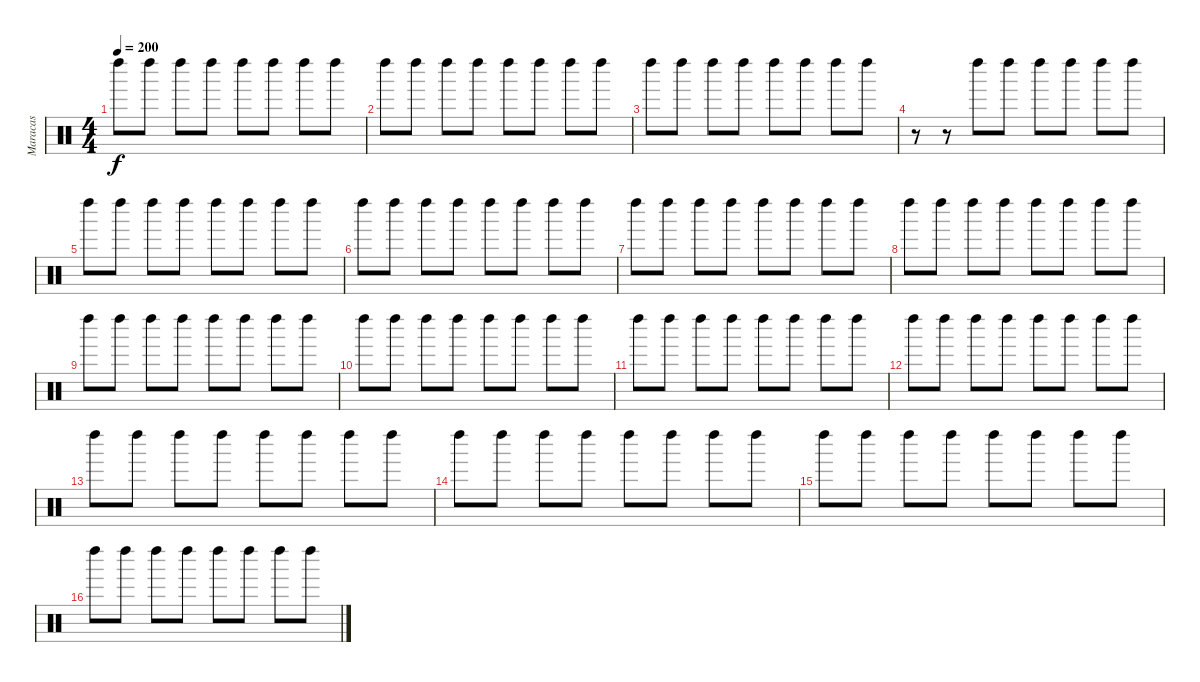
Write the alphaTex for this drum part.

\track ("Maracas" "Maracas") {instrument percussion}
\staff {score}
\articulation defaults
\ts (4 4)
\tempo 200
\clef neutral
\ks c "Left Maraca (hit)".8{dy f} "Left Maraca (hit)".8 "Left Maraca (hit)".8 "Left Maraca (hit)".8 "Left Maraca (hit)".8 "Left Maraca (hit)".8 "Left Maraca (hit)".8 "Left Maraca (hit)".8
|
"Left Maraca (hit)".8 "Left Maraca (hit)".8 "Left Maraca (hit)".8 "Left Maraca (hit)".8 "Left Maraca (hit)".8 "Left Maraca (hit)".8 "Left Maraca (hit)".8 "Left Maraca (hit)".8 |
"Left Maraca (hit)".8 "Left Maraca (hit)".8 "Left Maraca (hit)".8 "Left Maraca (hit)".8 "Left Maraca (hit)".8 "Left Maraca (hit)".8 "Left Maraca (hit)".8 "Left Maraca (hit)".8 |
r.8 r.8 "Left Maraca (hit)".8 "Left Maraca (hit)".8 "Left Maraca (hit)".8 "Left Maraca (hit)".8 "Left Maraca (hit)".8 "Left Maraca (hit)".8 |
"Left Maraca (hit)".8 "Left Maraca (hit)".8 "Left Maraca (hit)".8 "Left Maraca (hit)".8 "Left Maraca (hit)".8 "Left Maraca (hit)".8 "Left Maraca (hit)".8 "Left Maraca (hit)".8 |
"Left Maraca (hit)".8 "Left Maraca (hit)".8 "Left Maraca (hit)".8 "Left Maraca (hit)".8 "Left Maraca (hit)".8 "Left Maraca (hit)".8 "Left Maraca (hit)".8 "Left Maraca (hit)".8 |
"Left Maraca (hit)".8 "Left Maraca (hit)".8 "Left Maraca (hit)".8 "Left Maraca (hit)".8 "Left Maraca (hit)".8 "Left Maraca (hit)".8 "Left Maraca (hit)".8 "Left Maraca (hit)".8 |
"Left Maraca (hit)".8 "Left Maraca (hit)".8 "Left Maraca (hit)".8 "Left Maraca (hit)".8 "Left Maraca (hit)".8 "Left Maraca (hit)".8 "Left Maraca (hit)".8 "Left Maraca (hit)".8 |
"Left Maraca (hit)".8 "Left Maraca (hit)".8 "Left Maraca (hit)".8 "Left Maraca (hit)".8 "Left Maraca (hit)".8 "Left Maraca (hit)".8 "Left Maraca (hit)".8 "Left Maraca (hit)".8 |
"Left Maraca (hit)".8 "Left Maraca (hit)".8 "Left Maraca (hit)".8 "Left Maraca (hit)".8 "Left Maraca (hit)".8 "Left Maraca (hit)".8 "Left Maraca (hit)".8 "Left Maraca (hit)".8 |
"Left Maraca (hit)".8 "Left Maraca (hit)".8 "Left Maraca (hit)".8 "Left Maraca (hit)".8 "Left Maraca (hit)".8 "Left Maraca (hit)".8 "Left Maraca (hit)".8 "Left Maraca (hit)".8 |
"Left Maraca (hit)".8 "Left Maraca (hit)".8 "Left Maraca (hit)".8 "Left Maraca (hit)".8 "Left Maraca (hit)".8 "Left Maraca (hit)".8 "Left Maraca (hit)".8 "Left Maraca (hit)".8 |
"Left Maraca (hit)".8 "Left Maraca (hit)".8 "Left Maraca (hit)".8 "Left Maraca (hit)".8 "Left Maraca (hit)".8 "Left Maraca (hit)".8 "Left Maraca (hit)".8 "Left Maraca (hit)".8 |
"Left Maraca (hit)".8 "Left Maraca (hit)".8 "Left Maraca (hit)".8 "Left Maraca (hit)".8 "Left Maraca (hit)".8 "Left Maraca (hit)".8 "Left Maraca (hit)".8 "Left Maraca (hit)".8 |
"Left Maraca (hit)".8 "Left Maraca (hit)".8 "Left Maraca (hit)".8 "Left Maraca (hit)".8 "Left Maraca (hit)".8 "Left Maraca (hit)".8 "Left Maraca (hit)".8 "Left Maraca (hit)".8 |
"Left Maraca (hit)".8 "Left Maraca (hit)".8 "Left Maraca (hit)".8 "Left Maraca (hit)".8 "Left Maraca (hit)".8 "Left Maraca (hit)".8 "Left Maraca (hit)".8 "Left Maraca (hit)".8
